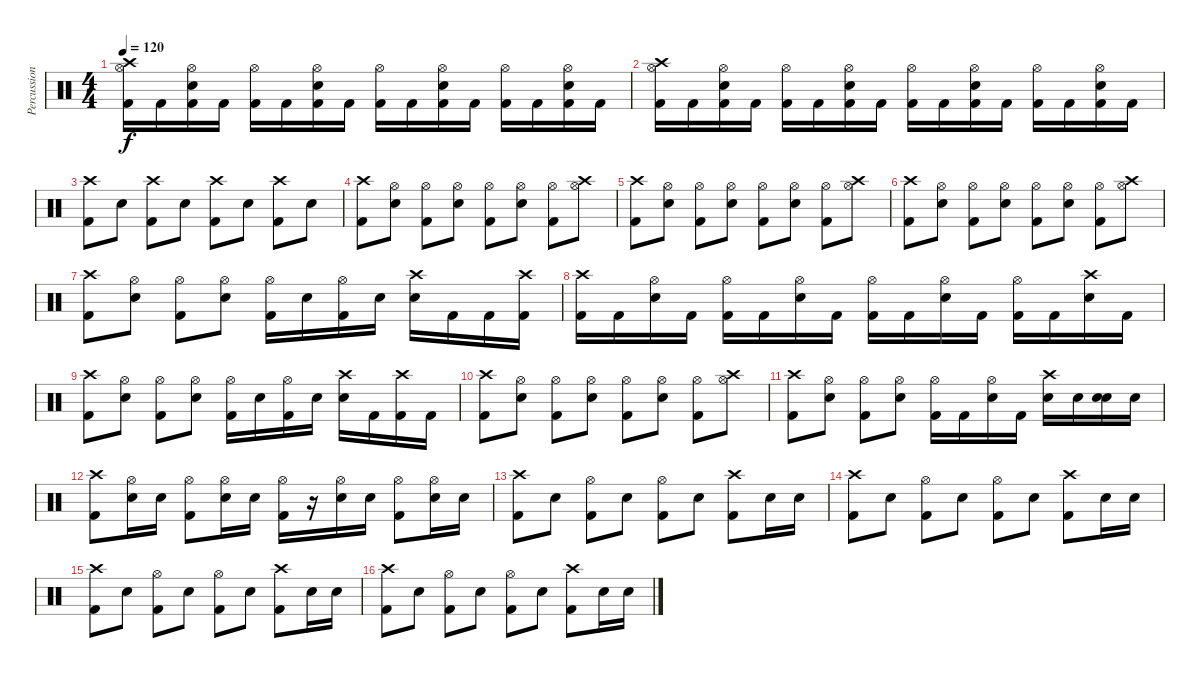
\track ("Percussion" "Percussion") {instrument percussion}
\staff {score}
\articulation defaults
\ts (4 4)
\tempo 120
\clef neutral
\ks c
("Crash high (hit)" "Kick (hit) 2" "Hi-Hat (open)").16{dy f} "Kick (hit) 2".16 ("Electric Snare (hit)" "Kick (hit) 2" "Hi-Hat (open)").16 "Kick (hit) 2".16 ("Kick (hit) 2" "Hi-Hat (open)").16 "Kick (hit) 2".16 ("Electric Snare (hit)" "Kick (hit) 2" "Hi-Hat (open)").16 "Kick (hit) 2".16 ("Kick (hit) 2" "Hi-Hat (open)").16 "Kick (hit) 2".16 ("Electric Snare (hit)" "Kick (hit) 2" "Hi-Hat (open)").16 "Kick (hit) 2".16 ("Kick (hit) 2" "Hi-Hat (open)").16 "Kick (hit) 2".16 ("Electric Snare (hit)" "Kick (hit) 2" "Hi-Hat (open)").16 "Kick (hit) 2".16 |
("Crash high (hit)" "Kick (hit) 2" "Hi-Hat (open)").16 "Kick (hit) 2".16 ("Electric Snare (hit)" "Kick (hit) 2" "Hi-Hat (open)").16 "Kick (hit) 2".16 ("Kick (hit) 2" "Hi-Hat (open)").16 "Kick (hit) 2".16 ("Electric Snare (hit)" "Kick (hit) 2" "Hi-Hat (open)").16 "Kick (hit) 2".16 ("Kick (hit) 2" "Hi-Hat (open)").16 "Kick (hit) 2".16 ("Electric Snare (hit)" "Kick (hit) 2" "Hi-Hat (open)").16 "Kick (hit) 2".16 ("Kick (hit) 2" "Hi-Hat (open)").16 "Kick (hit) 2".16 ("Electric Snare (hit)" "Kick (hit) 2" "Hi-Hat (open)").16 "Kick (hit) 2".16 |
("Crash high (hit)" "Kick (hit) 2").8 "Electric Snare (hit)".8 ("Crash high (hit)" "Kick (hit) 2").8 "Electric Snare (hit)".8 ("Crash high (hit)" "Kick (hit) 2").8 "Electric Snare (hit)".8 ("Crash high (hit)" "Kick (hit) 2").8 "Electric Snare (hit)".8 |
("Kick (hit) 2" "Crash high (hit)").8 ("Electric Snare (hit)" "Hi-Hat (open)").8 ("Kick (hit) 2" "Hi-Hat (open)").8 ("Electric Snare (hit)" "Hi-Hat (open)").8 ("Kick (hit) 2" "Hi-Hat (open)").8 ("Electric Snare (hit)" "Hi-Hat (open)").8 ("Kick (hit) 2" "Hi-Hat (open)").8 ("Crash high (hit)" "Hi-Hat (open)").8 |
("Kick (hit) 2" "Crash high (hit)").8 ("Electric Snare (hit)" "Hi-Hat (open)").8 ("Kick (hit) 2" "Hi-Hat (open)").8 ("Electric Snare (hit)" "Hi-Hat (open)").8 ("Kick (hit) 2" "Hi-Hat (open)").8 ("Electric Snare (hit)" "Hi-Hat (open)").8 ("Kick (hit) 2" "Hi-Hat (open)").8 ("Crash high (hit)" "Hi-Hat (open)").8 |
("Kick (hit) 2" "Crash high (hit)").8 ("Electric Snare (hit)" "Hi-Hat (open)").8 ("Kick (hit) 2" "Hi-Hat (open)").8 ("Electric Snare (hit)" "Hi-Hat (open)").8 ("Kick (hit) 2" "Hi-Hat (open)").8 ("Electric Snare (hit)" "Hi-Hat (open)").8 ("Kick (hit) 2" "Hi-Hat (open)").8 ("Crash high (hit)" "Hi-Hat (open)").8 |
("Kick (hit) 2" "Crash high (hit)").8 ("Electric Snare (hit)" "Hi-Hat (open)").8 ("Kick (hit) 2" "Hi-Hat (open)").8 ("Electric Snare (hit)" "Hi-Hat (open)").8 ("Kick (hit) 2" "Hi-Hat (open)").16 "Electric Snare (hit)".16 ("Kick (hit) 2" "Hi-Hat (open)").16 "Electric Snare (hit)".16 ("Electric Snare (hit)" "Crash high (hit)").16 "Kick (hit) 2".16 "Kick (hit) 2".16 ("Crash high (hit)" "Kick (hit) 2").16 |
("Crash high (hit)" "Kick (hit) 2").16 "Kick (hit) 2".16 ("Hi-Hat (open)" "Electric Snare (hit)").16 "Kick (hit) 2".16 ("Hi-Hat (open)" "Kick (hit) 2").16 "Kick (hit) 2".16 ("Hi-Hat (open)" "Electric Snare (hit)").16 "Kick (hit) 2".16 ("Hi-Hat (open)" "Kick (hit) 2").16 "Kick (hit) 2".16 ("Hi-Hat (open)" "Electric Snare (hit)").16 "Kick (hit) 2".16 ("Hi-Hat (open)" "Kick (hit) 2").16 "Kick (hit) 2".16 ("Crash high (hit)" "Electric Snare (hit)").16 "Kick (hit) 2".16 |
("Kick (hit) 2" "Crash high (hit)").8 ("Electric Snare (hit)" "Hi-Hat (open)").8 ("Kick (hit) 2" "Hi-Hat (open)").8 ("Electric Snare (hit)" "Hi-Hat (open)").8 ("Kick (hit) 2" "Hi-Hat (open)").16 "Electric Snare (hit)".16 ("Kick (hit) 2" "Hi-Hat (open)").16 "Electric Snare (hit)".16 ("Electric Snare (hit)" "Crash high (hit)").16 "Kick (hit) 2".16 ("Crash high (hit)" "Kick (hit) 2").16 "Kick (hit) 2".16 |
("Kick (hit) 2" "Crash high (hit)").8 ("Electric Snare (hit)" "Hi-Hat (open)").8 ("Kick (hit) 2" "Hi-Hat (open)").8 ("Electric Snare (hit)" "Hi-Hat (open)").8 ("Kick (hit) 2" "Hi-Hat (open)").8 ("Electric Snare (hit)" "Hi-Hat (open)").8 ("Kick (hit) 2" "Hi-Hat (open)").8 ("Crash high (hit)" "Hi-Hat (open)").8 |
("Kick (hit) 2" "Crash high (hit)").8 ("Electric Snare (hit)" "Hi-Hat (open)").8 ("Kick (hit) 2" "Hi-Hat (open)").8 ("Electric Snare (hit)" "Hi-Hat (open)").8 ("Kick (hit) 2" "Hi-Hat (open)").16 "Kick (hit) 2".16 ("Electric Snare (hit)" "Hi-Hat (open)").16 "Kick (hit) 2".16 ("Crash high (hit)" "Electric Snare (hit)").16 "Electric Snare (hit)".16 ("Electric Snare (hit)" "Electric Snare (hit)").16 "Electric Snare (hit)".16 |
("Crash high (hit)" "Kick (hit) 2").8 ("Hi-Hat (open)" "Electric Snare (hit)").16 "Electric Snare (hit)".16 ("Hi-Hat (open)" "Kick (hit) 2").8 ("Hi-Hat (open)" "Electric Snare (hit)").16 "Electric Snare (hit)".16 ("Hi-Hat (open)" "Kick (hit) 2").16 r.16 ("Hi-Hat (open)" "Electric Snare (hit)").16 "Electric Snare (hit)".16 ("Hi-Hat (open)" "Kick (hit) 2").8 ("Hi-Hat (open)" "Electric Snare (hit)").16 "Electric Snare (hit)".16 |
("Crash high (hit)" "Kick (hit) 2").8 "Electric Snare (hit)".8 ("Hi-Hat (open)" "Kick (hit) 2").8 "Electric Snare (hit)".8 ("Hi-Hat (open)" "Kick (hit) 2").8 "Electric Snare (hit)".8 ("Crash high (hit)" "Kick (hit) 2").8 "Electric Snare (hit)".16 "Electric Snare (hit)".16 |
("Crash high (hit)" "Kick (hit) 2").8 "Electric Snare (hit)".8 ("Hi-Hat (open)" "Kick (hit) 2").8 "Electric Snare (hit)".8 ("Hi-Hat (open)" "Kick (hit) 2").8 "Electric Snare (hit)".8 ("Crash high (hit)" "Kick (hit) 2").8 "Electric Snare (hit)".16 "Electric Snare (hit)".16 |
("Crash high (hit)" "Kick (hit) 2").8 "Electric Snare (hit)".8 ("Hi-Hat (open)" "Kick (hit) 2").8 "Electric Snare (hit)".8 ("Hi-Hat (open)" "Kick (hit) 2").8 "Electric Snare (hit)".8 ("Crash high (hit)" "Kick (hit) 2").8 "Electric Snare (hit)".16 "Electric Snare (hit)".16 |
("Crash high (hit)" "Kick (hit) 2").8 "Electric Snare (hit)".8 ("Hi-Hat (open)" "Kick (hit) 2").8 "Electric Snare (hit)".8 ("Hi-Hat (open)" "Kick (hit) 2").8 "Electric Snare (hit)".8 ("Crash high (hit)" "Kick (hit) 2").8 "Electric Snare (hit)".16 "Electric Snare (hit)".16
